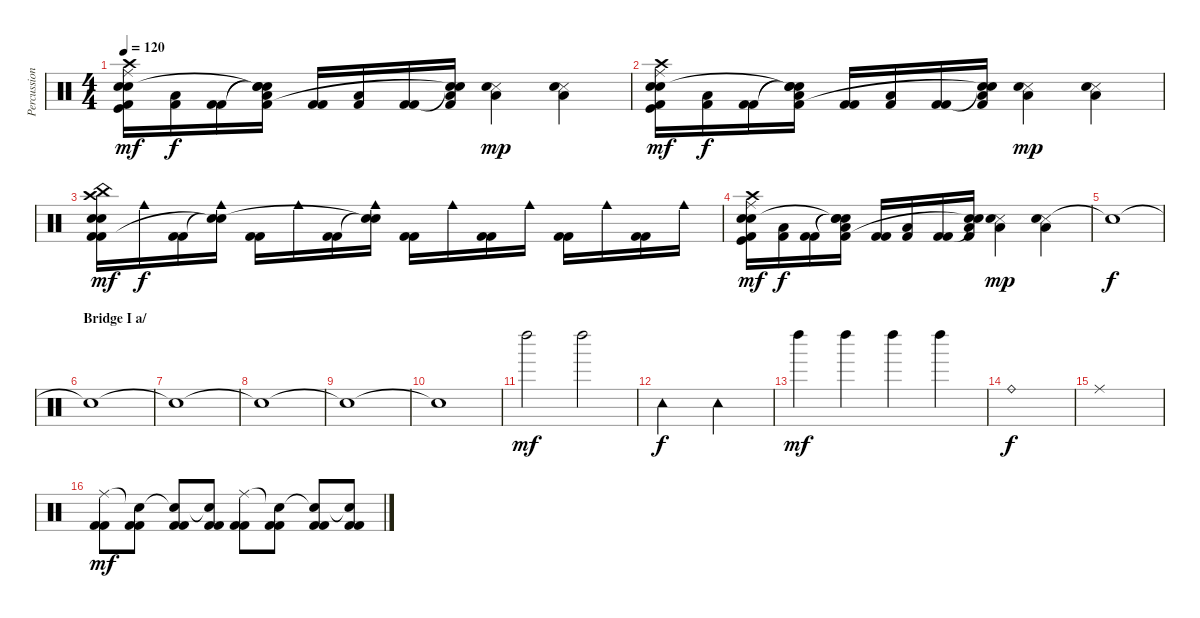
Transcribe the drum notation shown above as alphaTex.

\track ("Percussions" "Percussion") {instrument percussion}
\staff {score}
\articulation defaults
\ts (4 4)
\tempo 120
\clef neutral
\ks c
("Crash high (hit)" "Electric Snare (hit)" "Kick (hit)" "Kick (hit) 2" "Electric Snare (hit)" "Ride (middle)").16{dy mf} ("Low Floor Tom (hit)" "Kick (hit) 2").16{dy f} ("Kick (hit) 2" "Kick (hit) 2").16 ("Snare (hit)"{t} "Snare (hit)"{t} "Low Floor Tom (hit)" "Kick (hit) 2" "Snare (hit)"{t}).16 ("Kick (hit) 2" "Kick (hit) 2").16 ("Low Floor Tom (hit)" "Kick (hit) 2").16 ("Kick (hit) 2" "Kick (hit) 2").16 ("Snare (hit)"{t} "Low Floor Tom (hit)" "Kick (hit) 2" "Snare (hit)"{t}).16 ("Snare (side stick) 3" "Snare (hit) 2" "Low Floor Tom (hit)").4{dy mp} ("Snare (side stick) 3" "Snare (hit) 2" "Low Floor Tom (hit)").4 |
("Crash high (hit)" "Electric Snare (hit)" "Kick (hit)" "Kick (hit) 2" "Electric Snare (hit)" "Ride (middle)").16{dy mf} ("Low Floor Tom (hit)" "Kick (hit) 2").16{dy f} ("Kick (hit) 2" "Kick (hit) 2").16 ("Snare (hit)"{t} "Snare (hit)"{t} "Low Floor Tom (hit)" "Kick (hit) 2" "Snare (hit)"{t}).16 ("Kick (hit) 2" "Kick (hit) 2").16 ("Low Floor Tom (hit)" "Kick (hit) 2").16 ("Kick (hit) 2" "Kick (hit) 2").16 ("Snare (hit)"{t} "Low Floor Tom (hit)" "Kick (hit) 2" "Snare (hit)"{t}).16 ("Snare (side stick) 3" "Snare (hit) 2" "Low Floor Tom (hit)").4{dy mp} ("Snare (side stick) 3" "Snare (hit) 2" "Low Floor Tom (hit)").4 |
("Crash high (hit)" "Electric Snare (hit)" "Kick (hit) 2" "Kick (hit) 2" "Electric Snare (hit)" "China (hit)").16{dy mf} "Cowbell medium (hit)".16{dy f} ("Kick (hit) 2" "Kick (hit) 2").16 ("Snare (hit)"{t} "Cowbell medium (hit)" "Snare (hit)"{t}).16 ("Kick (hit) 2" "Kick (hit) 2").16 "Cowbell medium (hit)".16 ("Kick (hit) 2" "Kick (hit) 2").16 ("Snare (hit)"{t} "Cowbell medium (hit)" "Snare (hit)"{t}).16 ("Kick (hit) 2" "Kick (hit) 2").16 "Cowbell medium (hit)".16 ("Kick (hit) 2" "Kick (hit) 2").16 "Cowbell medium (hit)".16 ("Kick (hit) 2" "Kick (hit) 2").16 "Cowbell medium (hit)".16 ("Kick (hit) 2" "Kick (hit) 2").16 "Cowbell medium (hit)".16 |
("Crash high (hit)" "Electric Snare (hit)" "Kick (hit)" "Kick (hit) 2" "Electric Snare (hit)" "Ride (middle)").16{dy mf} ("Low Floor Tom (hit)" "Kick (hit) 2").16{dy f} ("Kick (hit) 2" "Kick (hit) 2").16 ("Snare (hit)"{t} "Snare (hit)"{t} "Low Floor Tom (hit)" "Kick (hit) 2" "Snare (hit)"{t}).16 ("Kick (hit) 2" "Kick (hit) 2").16 ("Low Floor Tom (hit)" "Kick (hit) 2").16 ("Kick (hit) 2" "Kick (hit) 2").16 ("Snare (hit)"{t} "Low Floor Tom (hit)" "Kick (hit) 2" "Snare (hit)"{t}).16 ("Snare (side stick) 3" "Snare (hit) 2" "Low Floor Tom (hit)").4{dy mp} ("Snare (side stick) 3" "Snare (hit) 2" "Low Floor Tom (hit)").4 |
"Snare (hit)"{t}.1{dy f} |
\section ("" "Bridge I a/")
"Snare (hit)"{t}.1 |
"Snare (hit)"{t}.1 |
"Snare (hit)"{t}.1 |
"Snare (hit)"{t}.1 |
"Snare (hit)"{t}.1 |
"Left Maraca (hit)".2{dy mf} "Left Maraca (hit)".2 |
"Tambourine (hit)".2{dy f} "Tambourine (hit)".2 |
"Left Maraca (hit)".4{dy mf} "Left Maraca (hit)".4 "Left Maraca (hit)".4 "Left Maraca (hit)".4 |
"Ride (bell)".1{dy f} |
"Ride (middle)".1 |
("Ride (middle)" "Kick (hit) 2" "Kick (hit) 2").8{dy mf} ("Snare (hit)"{t} "Kick (hit) 2" "Kick (hit) 2").8 ("Snare (hit)"{t} "Kick (hit) 2" "Kick (hit) 2").8 ("Snare (hit)"{t} "Kick (hit) 2" "Kick (hit) 2").8 ("Ride (middle)" "Kick (hit) 2" "Kick (hit) 2").8 ("Snare (hit)"{t} "Kick (hit) 2" "Kick (hit) 2").8 ("Snare (hit)"{t} "Kick (hit) 2" "Kick (hit) 2").8 ("Snare (hit)"{t} "Kick (hit) 2" "Kick (hit) 2").8
